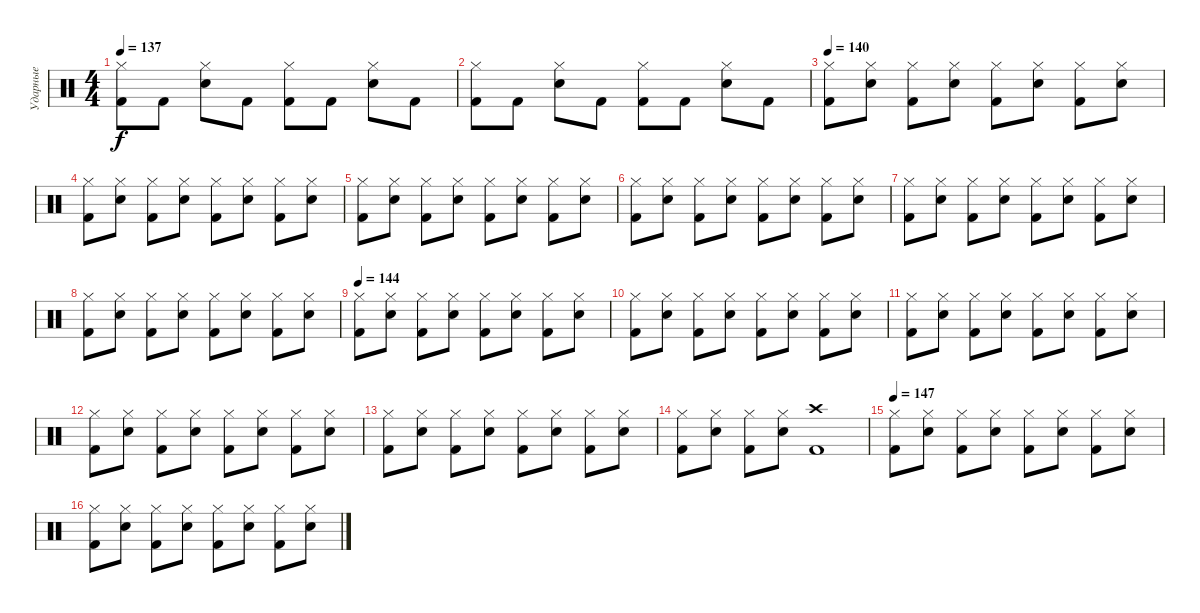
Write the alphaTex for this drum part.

\track ("Ударные" "Ударные") {instrument percussion}
\staff {score}
\articulation defaults
\ts (4 4)
\tempo 137
\clef neutral
\ks c
("Kick (hit) 2" "Hi-Hat (closed)").8{dy f} "Kick (hit) 2".8 ("Electric Snare (hit)" "Hi-Hat (closed)").8 "Kick (hit) 2".8 ("Kick (hit) 2" "Hi-Hat (closed)").8 "Kick (hit) 2".8 ("Electric Snare (hit)" "Hi-Hat (closed)").8 "Kick (hit) 2".8 |
("Kick (hit) 2" "Hi-Hat (closed)").8 "Kick (hit) 2".8 ("Electric Snare (hit)" "Hi-Hat (closed)").8 "Kick (hit) 2".8 ("Kick (hit) 2" "Hi-Hat (closed)").8 "Kick (hit) 2".8 ("Electric Snare (hit)" "Hi-Hat (closed)").8 "Kick (hit) 2".8 |
\tempo 140
("Kick (hit) 2" "Hi-Hat (closed)").8 ("Electric Snare (hit)" "Hi-Hat (closed)").8 ("Kick (hit) 2" "Hi-Hat (closed)").8 ("Electric Snare (hit)" "Hi-Hat (closed)").8 ("Kick (hit) 2" "Hi-Hat (closed)").8 ("Electric Snare (hit)" "Hi-Hat (closed)").8 ("Kick (hit) 2" "Hi-Hat (closed)").8 ("Electric Snare (hit)" "Hi-Hat (closed)").8 |
("Kick (hit) 2" "Hi-Hat (closed)").8 ("Electric Snare (hit)" "Hi-Hat (closed)").8 ("Kick (hit) 2" "Hi-Hat (closed)").8 ("Electric Snare (hit)" "Hi-Hat (closed)").8 ("Kick (hit) 2" "Hi-Hat (closed)").8 ("Electric Snare (hit)" "Hi-Hat (closed)").8 ("Kick (hit) 2" "Hi-Hat (closed)").8 ("Electric Snare (hit)" "Hi-Hat (closed)").8 |
("Kick (hit) 2" "Hi-Hat (closed)").8 ("Electric Snare (hit)" "Hi-Hat (closed)").8 ("Kick (hit) 2" "Hi-Hat (closed)").8 ("Electric Snare (hit)" "Hi-Hat (closed)").8 ("Kick (hit) 2" "Hi-Hat (closed)").8 ("Electric Snare (hit)" "Hi-Hat (closed)").8 ("Kick (hit) 2" "Hi-Hat (closed)").8 ("Electric Snare (hit)" "Hi-Hat (closed)").8 |
("Kick (hit) 2" "Hi-Hat (closed)").8 ("Electric Snare (hit)" "Hi-Hat (closed)").8 ("Kick (hit) 2" "Hi-Hat (closed)").8 ("Electric Snare (hit)" "Hi-Hat (closed)").8 ("Kick (hit) 2" "Hi-Hat (closed)").8 ("Electric Snare (hit)" "Hi-Hat (closed)").8 ("Kick (hit) 2" "Hi-Hat (closed)").8 ("Electric Snare (hit)" "Hi-Hat (closed)").8 |
("Kick (hit) 2" "Hi-Hat (closed)").8 ("Electric Snare (hit)" "Hi-Hat (closed)").8 ("Kick (hit) 2" "Hi-Hat (closed)").8 ("Electric Snare (hit)" "Hi-Hat (closed)").8 ("Kick (hit) 2" "Hi-Hat (closed)").8 ("Electric Snare (hit)" "Hi-Hat (closed)").8 ("Kick (hit) 2" "Hi-Hat (closed)").8 ("Electric Snare (hit)" "Hi-Hat (closed)").8 |
("Kick (hit) 2" "Hi-Hat (closed)").8 ("Electric Snare (hit)" "Hi-Hat (closed)").8 ("Kick (hit) 2" "Hi-Hat (closed)").8 ("Electric Snare (hit)" "Hi-Hat (closed)").8 ("Kick (hit) 2" "Hi-Hat (closed)").8 ("Electric Snare (hit)" "Hi-Hat (closed)").8 ("Kick (hit) 2" "Hi-Hat (closed)").8 ("Electric Snare (hit)" "Hi-Hat (closed)").8 |
\tempo 144
("Kick (hit) 2" "Hi-Hat (closed)").8 ("Electric Snare (hit)" "Hi-Hat (closed)").8 ("Kick (hit) 2" "Hi-Hat (closed)").8 ("Electric Snare (hit)" "Hi-Hat (closed)").8 ("Kick (hit) 2" "Hi-Hat (closed)").8 ("Electric Snare (hit)" "Hi-Hat (closed)").8 ("Kick (hit) 2" "Hi-Hat (closed)").8 ("Electric Snare (hit)" "Hi-Hat (closed)").8 |
("Kick (hit) 2" "Hi-Hat (closed)").8 ("Electric Snare (hit)" "Hi-Hat (closed)").8 ("Kick (hit) 2" "Hi-Hat (closed)").8 ("Electric Snare (hit)" "Hi-Hat (closed)").8 ("Kick (hit) 2" "Hi-Hat (closed)").8 ("Electric Snare (hit)" "Hi-Hat (closed)").8 ("Kick (hit) 2" "Hi-Hat (closed)").8 ("Electric Snare (hit)" "Hi-Hat (closed)").8 |
("Kick (hit) 2" "Hi-Hat (closed)").8 ("Electric Snare (hit)" "Hi-Hat (closed)").8 ("Kick (hit) 2" "Hi-Hat (closed)").8 ("Electric Snare (hit)" "Hi-Hat (closed)").8 ("Kick (hit) 2" "Hi-Hat (closed)").8 ("Electric Snare (hit)" "Hi-Hat (closed)").8 ("Kick (hit) 2" "Hi-Hat (closed)").8 ("Electric Snare (hit)" "Hi-Hat (closed)").8 |
("Kick (hit) 2" "Hi-Hat (closed)").8 ("Electric Snare (hit)" "Hi-Hat (closed)").8 ("Kick (hit) 2" "Hi-Hat (closed)").8 ("Electric Snare (hit)" "Hi-Hat (closed)").8 ("Kick (hit) 2" "Hi-Hat (closed)").8 ("Electric Snare (hit)" "Hi-Hat (closed)").8 ("Kick (hit) 2" "Hi-Hat (closed)").8 ("Electric Snare (hit)" "Hi-Hat (closed)").8 |
("Kick (hit) 2" "Hi-Hat (closed)").8 ("Electric Snare (hit)" "Hi-Hat (closed)").8 ("Kick (hit) 2" "Hi-Hat (closed)").8 ("Electric Snare (hit)" "Hi-Hat (closed)").8 ("Kick (hit) 2" "Hi-Hat (closed)").8 ("Electric Snare (hit)" "Hi-Hat (closed)").8 ("Kick (hit) 2" "Hi-Hat (closed)").8 ("Electric Snare (hit)" "Hi-Hat (closed)").8 |
("Kick (hit) 2" "Hi-Hat (closed)").8 ("Electric Snare (hit)" "Hi-Hat (closed)").8 ("Kick (hit) 2" "Hi-Hat (closed)").8 ("Electric Snare (hit)" "Hi-Hat (closed)").8 ("Kick (hit) 2" "Crash high (hit)").1 |
\tempo 147
("Kick (hit) 2" "Hi-Hat (closed)").8 ("Electric Snare (hit)" "Hi-Hat (closed)").8 ("Kick (hit) 2" "Hi-Hat (closed)").8 ("Electric Snare (hit)" "Hi-Hat (closed)").8 ("Kick (hit) 2" "Hi-Hat (closed)").8 ("Electric Snare (hit)" "Hi-Hat (closed)").8 ("Kick (hit) 2" "Hi-Hat (closed)").8 ("Electric Snare (hit)" "Hi-Hat (closed)").8 |
("Kick (hit) 2" "Hi-Hat (closed)").8 ("Electric Snare (hit)" "Hi-Hat (closed)").8 ("Kick (hit) 2" "Hi-Hat (closed)").8 ("Electric Snare (hit)" "Hi-Hat (closed)").8 ("Kick (hit) 2" "Hi-Hat (closed)").8 ("Electric Snare (hit)" "Hi-Hat (closed)").8 ("Kick (hit) 2" "Hi-Hat (closed)").8 ("Electric Snare (hit)" "Hi-Hat (closed)").8
